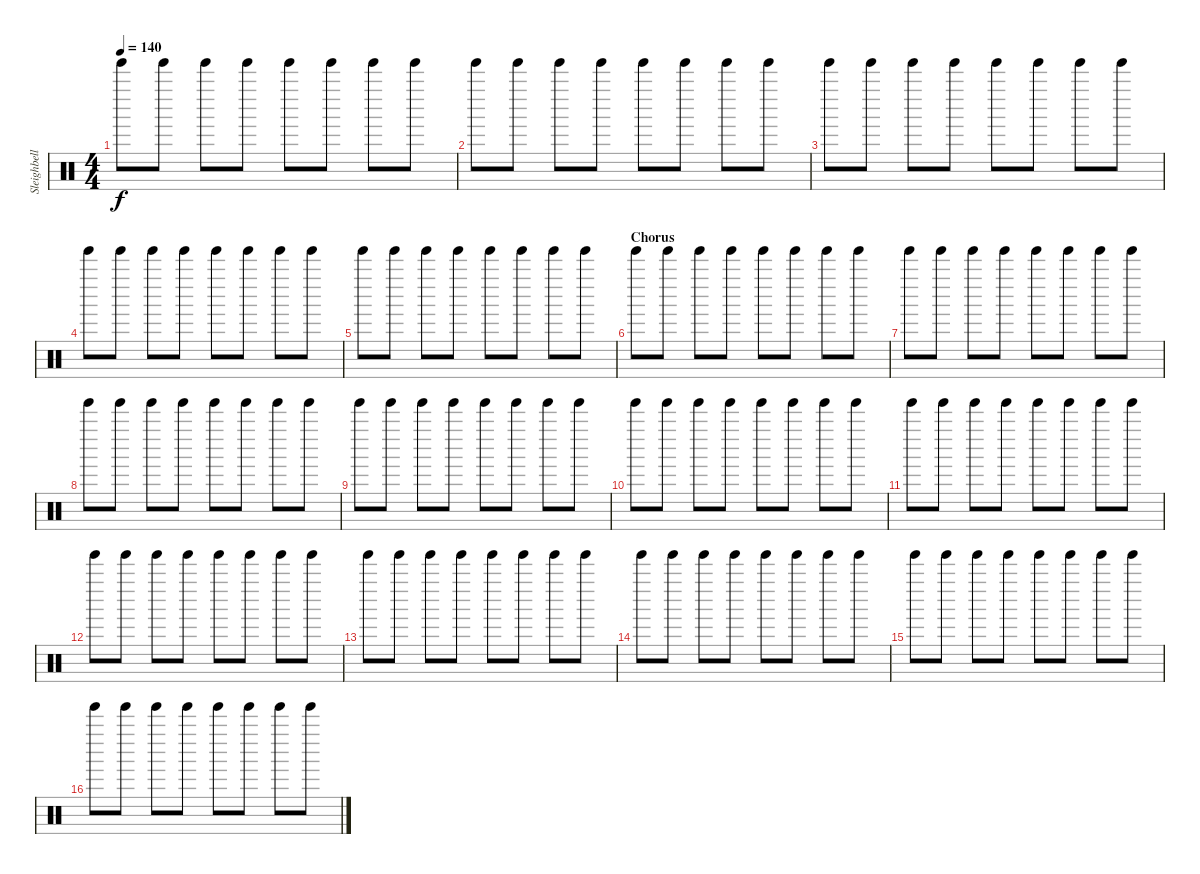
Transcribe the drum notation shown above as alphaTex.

\track ("Sleighbells" "Sleighbell") {instrument percussion}
\staff {score}
\articulation defaults
\ts (4 4)
\tempo 140
\clef neutral
\ks c "Tinkle Bell (hit)".8{dy f} "Tinkle Bell (hit)".8 "Tinkle Bell (hit)".8 "Tinkle Bell (hit)".8 "Tinkle Bell (hit)".8 "Tinkle Bell (hit)".8 "Tinkle Bell (hit)".8 "Tinkle Bell (hit)".8
|
"Tinkle Bell (hit)".8 "Tinkle Bell (hit)".8 "Tinkle Bell (hit)".8 "Tinkle Bell (hit)".8 "Tinkle Bell (hit)".8 "Tinkle Bell (hit)".8 "Tinkle Bell (hit)".8 "Tinkle Bell (hit)".8 |
"Tinkle Bell (hit)".8 "Tinkle Bell (hit)".8 "Tinkle Bell (hit)".8 "Tinkle Bell (hit)".8 "Tinkle Bell (hit)".8 "Tinkle Bell (hit)".8 "Tinkle Bell (hit)".8 "Tinkle Bell (hit)".8 |
"Tinkle Bell (hit)".8 "Tinkle Bell (hit)".8 "Tinkle Bell (hit)".8 "Tinkle Bell (hit)".8 "Tinkle Bell (hit)".8 "Tinkle Bell (hit)".8 "Tinkle Bell (hit)".8 "Tinkle Bell (hit)".8 |
"Tinkle Bell (hit)".8 "Tinkle Bell (hit)".8 "Tinkle Bell (hit)".8 "Tinkle Bell (hit)".8 "Tinkle Bell (hit)".8 "Tinkle Bell (hit)".8 "Tinkle Bell (hit)".8 "Tinkle Bell (hit)".8 |
\section ("" "Chorus")
"Tinkle Bell (hit)".8 "Tinkle Bell (hit)".8 "Tinkle Bell (hit)".8 "Tinkle Bell (hit)".8 "Tinkle Bell (hit)".8 "Tinkle Bell (hit)".8 "Tinkle Bell (hit)".8 "Tinkle Bell (hit)".8 |
"Tinkle Bell (hit)".8 "Tinkle Bell (hit)".8 "Tinkle Bell (hit)".8 "Tinkle Bell (hit)".8 "Tinkle Bell (hit)".8 "Tinkle Bell (hit)".8 "Tinkle Bell (hit)".8 "Tinkle Bell (hit)".8 |
"Tinkle Bell (hit)".8 "Tinkle Bell (hit)".8 "Tinkle Bell (hit)".8 "Tinkle Bell (hit)".8 "Tinkle Bell (hit)".8 "Tinkle Bell (hit)".8 "Tinkle Bell (hit)".8 "Tinkle Bell (hit)".8 |
"Tinkle Bell (hit)".8 "Tinkle Bell (hit)".8 "Tinkle Bell (hit)".8 "Tinkle Bell (hit)".8 "Tinkle Bell (hit)".8 "Tinkle Bell (hit)".8 "Tinkle Bell (hit)".8 "Tinkle Bell (hit)".8 |
"Tinkle Bell (hit)".8 "Tinkle Bell (hit)".8 "Tinkle Bell (hit)".8 "Tinkle Bell (hit)".8 "Tinkle Bell (hit)".8 "Tinkle Bell (hit)".8 "Tinkle Bell (hit)".8 "Tinkle Bell (hit)".8 |
"Tinkle Bell (hit)".8 "Tinkle Bell (hit)".8 "Tinkle Bell (hit)".8 "Tinkle Bell (hit)".8 "Tinkle Bell (hit)".8 "Tinkle Bell (hit)".8 "Tinkle Bell (hit)".8 "Tinkle Bell (hit)".8 |
"Tinkle Bell (hit)".8 "Tinkle Bell (hit)".8 "Tinkle Bell (hit)".8 "Tinkle Bell (hit)".8 "Tinkle Bell (hit)".8 "Tinkle Bell (hit)".8 "Tinkle Bell (hit)".8 "Tinkle Bell (hit)".8 |
"Tinkle Bell (hit)".8 "Tinkle Bell (hit)".8 "Tinkle Bell (hit)".8 "Tinkle Bell (hit)".8 "Tinkle Bell (hit)".8 "Tinkle Bell (hit)".8 "Tinkle Bell (hit)".8 "Tinkle Bell (hit)".8 |
"Tinkle Bell (hit)".8 "Tinkle Bell (hit)".8 "Tinkle Bell (hit)".8 "Tinkle Bell (hit)".8 "Tinkle Bell (hit)".8 "Tinkle Bell (hit)".8 "Tinkle Bell (hit)".8 "Tinkle Bell (hit)".8 |
"Tinkle Bell (hit)".8 "Tinkle Bell (hit)".8 "Tinkle Bell (hit)".8 "Tinkle Bell (hit)".8 "Tinkle Bell (hit)".8 "Tinkle Bell (hit)".8 "Tinkle Bell (hit)".8 "Tinkle Bell (hit)".8 |
"Tinkle Bell (hit)".8 "Tinkle Bell (hit)".8 "Tinkle Bell (hit)".8 "Tinkle Bell (hit)".8 "Tinkle Bell (hit)".8 "Tinkle Bell (hit)".8 "Tinkle Bell (hit)".8 "Tinkle Bell (hit)".8
